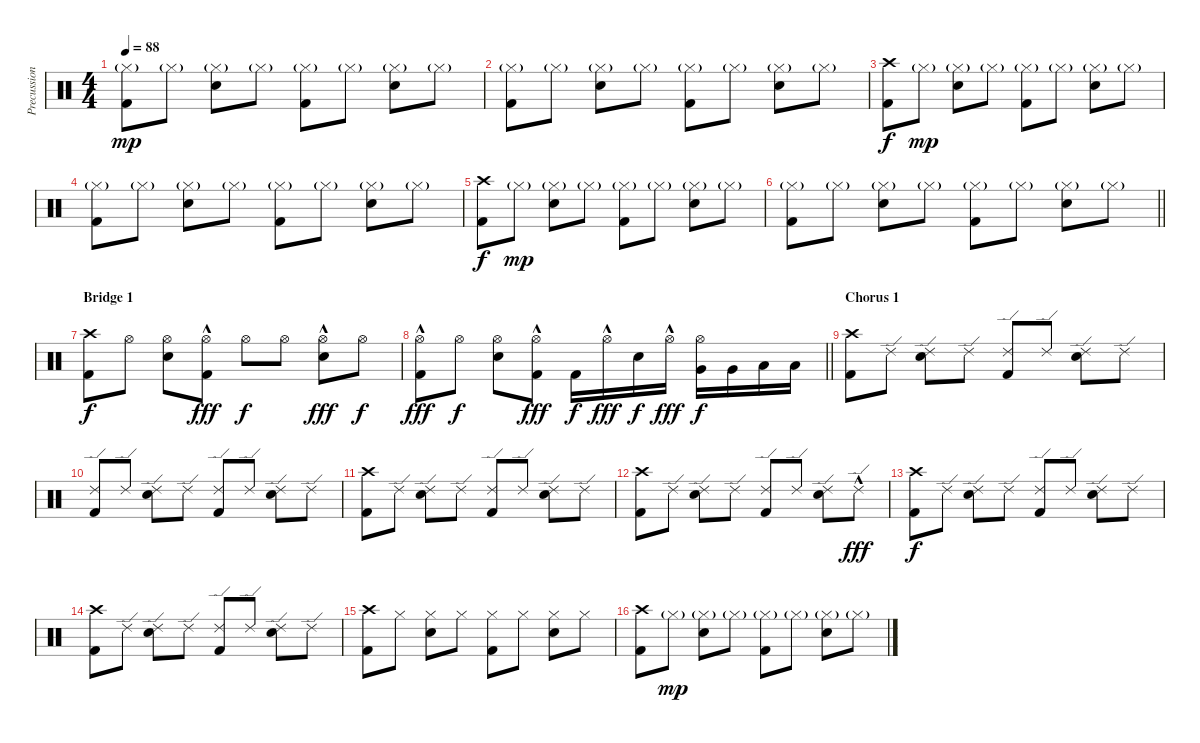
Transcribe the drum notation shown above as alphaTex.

\track ("Precussion" "Precussion") {instrument percussion}
\staff {score}
\articulation defaults
\ts (4 4)
\tempo 88
\clef neutral
\ks c
("Hi-Hat (closed)"{g} "Kick (hit) 2").8{dy mp} "Hi-Hat (closed)"{g}.8 ("Hi-Hat (closed)"{g} "Electric Snare (hit)").8 "Hi-Hat (closed)"{g}.8 ("Hi-Hat (closed)"{g} "Kick (hit) 2").8 "Hi-Hat (closed)"{g}.8 ("Hi-Hat (closed)"{g} "Electric Snare (hit)").8 "Hi-Hat (closed)"{g}.8 |
("Hi-Hat (closed)"{g} "Kick (hit) 2").8 "Hi-Hat (closed)"{g}.8 ("Hi-Hat (closed)"{g} "Electric Snare (hit)").8 "Hi-Hat (closed)"{g}.8 ("Hi-Hat (closed)"{g} "Kick (hit) 2").8 "Hi-Hat (closed)"{g}.8 ("Hi-Hat (closed)"{g} "Electric Snare (hit)").8 "Hi-Hat (closed)"{g}.8 |
("Crash high (hit)" "Kick (hit) 2").8{dy f} "Hi-Hat (closed)"{g}.8{dy mp} ("Hi-Hat (closed)"{g} "Electric Snare (hit)").8 "Hi-Hat (closed)"{g}.8 ("Hi-Hat (closed)"{g} "Kick (hit) 2").8 "Hi-Hat (closed)"{g}.8 ("Hi-Hat (closed)"{g} "Electric Snare (hit)").8 "Hi-Hat (closed)"{g}.8 |
("Hi-Hat (closed)"{g} "Kick (hit) 2").8 "Hi-Hat (closed)"{g}.8 ("Hi-Hat (closed)"{g} "Electric Snare (hit)").8 "Hi-Hat (closed)"{g}.8 ("Hi-Hat (closed)"{g} "Kick (hit) 2").8 "Hi-Hat (closed)"{g}.8 ("Hi-Hat (closed)"{g} "Electric Snare (hit)").8 "Hi-Hat (closed)"{g}.8 |
("Crash high (hit)" "Kick (hit) 2").8{dy f} "Hi-Hat (closed)"{g}.8{dy mp} ("Hi-Hat (closed)"{g} "Electric Snare (hit)").8 "Hi-Hat (closed)"{g}.8 ("Hi-Hat (closed)"{g} "Kick (hit) 2").8 "Hi-Hat (closed)"{g}.8 ("Hi-Hat (closed)"{g} "Electric Snare (hit)").8 "Hi-Hat (closed)"{g}.8 |
\barLineRight lightlight
("Hi-Hat (closed)"{g} "Kick (hit) 2").8 "Hi-Hat (closed)"{g}.8 ("Hi-Hat (closed)"{g} "Electric Snare (hit)").8 "Hi-Hat (closed)"{g}.8 ("Hi-Hat (closed)"{g} "Kick (hit) 2").8 "Hi-Hat (closed)"{g}.8 ("Hi-Hat (closed)"{g} "Electric Snare (hit)").8 "Hi-Hat (closed)"{g}.8 |
\section ("" "Bridge 1")
("Crash high (hit)" "Kick (hit) 2").8{dy f} "Hi-Hat (open)".8 ("Hi-Hat (open)" "Electric Snare (hit)").8 ("Hi-Hat (open)"{hac} "Kick (hit) 2").8{dy fff} "Hi-Hat (open)".8{dy f} "Hi-Hat (open)".8 ("Hi-Hat (open)"{hac} "Electric Snare (hit)").8{dy fff} "Hi-Hat (open)".8{dy f} |
\barLineRight lightlight
("Hi-Hat (open)"{hac} "Kick (hit) 2").8{dy fff} "Hi-Hat (open)".8{dy f} ("Hi-Hat (open)" "Electric Snare (hit)").8 ("Hi-Hat (open)"{hac} "Kick (hit) 2").8{dy fff} "Kick (hit) 2".16{dy f} "Hi-Hat (open)"{hac}.16{dy fff} "Electric Snare (hit)".16{dy f} "Hi-Hat (open)"{hac}.16{dy fff} ("Hi-Hat (open)" "Very Low Tom (hit)").16{dy f} "Very Low Tom (hit)".16 "Low Floor Tom (hit)".16 "Low Floor Tom (hit)".16 |
\section ("" "Chorus 1")
("Crash high (hit)" "Kick (hit) 2").8 "Ride (edge) 2".8 ("Ride (edge) 2" "Electric Snare (hit)").8 "Ride (edge) 2".8 ("Ride (edge) 2" "Kick (hit) 2").8 "Ride (edge) 2".8 ("Ride (edge) 2" "Electric Snare (hit)").8 "Ride (edge) 2".8 |
("Ride (edge) 2" "Kick (hit) 2").8 "Ride (edge) 2".8 ("Ride (edge) 2" "Electric Snare (hit)").8 "Ride (edge) 2".8 ("Ride (edge) 2" "Kick (hit) 2").8 "Ride (edge) 2".8 ("Ride (edge) 2" "Electric Snare (hit)").8 "Ride (edge) 2".8 |
("Crash high (hit)" "Kick (hit) 2").8 "Ride (edge) 2".8 ("Ride (edge) 2" "Electric Snare (hit)").8 "Ride (edge) 2".8 ("Ride (edge) 2" "Kick (hit) 2").8 "Ride (edge) 2".8 ("Ride (edge) 2" "Electric Snare (hit)").8 "Ride (edge) 2".8 |
("Crash high (hit)" "Kick (hit) 2").8 "Ride (edge) 2".8 ("Ride (edge) 2" "Electric Snare (hit)").8 "Ride (edge) 2".8 ("Ride (edge) 2" "Kick (hit) 2").8 "Ride (edge) 2".8 ("Ride (edge) 2" "Electric Snare (hit)").8 "Ride (edge) 2"{hac}.8{dy fff} |
("Crash high (hit)" "Kick (hit) 2").8{dy f} "Ride (edge) 2".8 ("Ride (edge) 2" "Electric Snare (hit)").8 "Ride (edge) 2".8 ("Ride (edge) 2" "Kick (hit) 2").8 "Ride (edge) 2".8 ("Ride (edge) 2" "Electric Snare (hit)").8 "Ride (edge) 2".8 |
("Crash high (hit)" "Kick (hit) 2").8 "Ride (edge) 2".8 ("Ride (edge) 2" "Electric Snare (hit)").8 "Ride (edge) 2".8 ("Ride (edge) 2" "Kick (hit) 2").8 "Ride (edge) 2".8 ("Ride (edge) 2" "Electric Snare (hit)").8 "Ride (edge) 2".8 |
("Crash high (hit)" "Kick (hit) 2").8 "Hi-Hat (closed)".8 ("Hi-Hat (closed)" "Electric Snare (hit)").8 "Hi-Hat (closed)".8 ("Hi-Hat (closed)" "Kick (hit) 2").8 "Hi-Hat (closed)".8 ("Hi-Hat (closed)" "Electric Snare (hit)").8 "Hi-Hat (closed)".8 |
("Crash high (hit)" "Kick (hit) 2").8 "Hi-Hat (closed)"{g}.8{dy mp} ("Hi-Hat (closed)"{g} "Electric Snare (hit)").8 "Hi-Hat (closed)"{g}.8 ("Hi-Hat (closed)"{g} "Kick (hit) 2").8 "Hi-Hat (closed)"{g}.8 ("Hi-Hat (closed)"{g} "Electric Snare (hit)").8 "Hi-Hat (closed)"{g}.8
